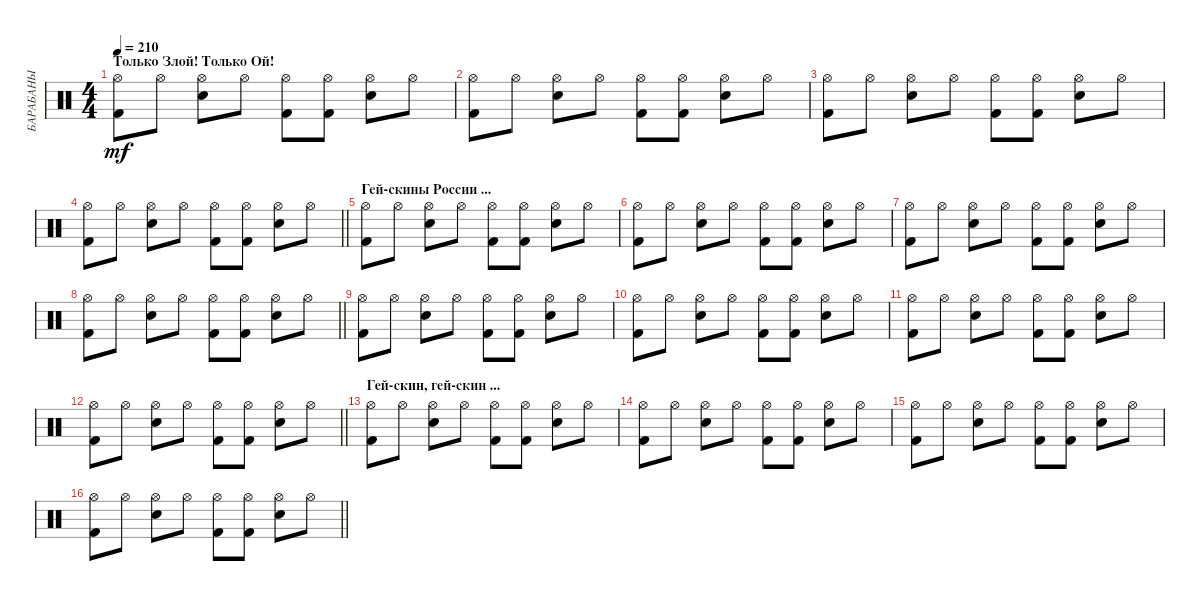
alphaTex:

\track ("БАРАБАНЫ" "БАРАБАНЫ") {instrument percussion}
\staff {score}
\articulation defaults
\ts (4 4)
\section ("" "Только Злой! Только Ой!")
\tempo 210
\clef neutral
\ks c
("Hi-Hat (open)" "Kick (hit) 2").8{dy mf} "Hi-Hat (open)".8 ("Hi-Hat (open)" "Snare (hit) 2").8 "Hi-Hat (open)".8 ("Hi-Hat (open)" "Kick (hit) 2").8 ("Hi-Hat (open)" "Kick (hit) 2").8 ("Hi-Hat (open)" "Snare (hit) 2").8 "Hi-Hat (open)".8 |
("Hi-Hat (open)" "Kick (hit) 2").8 "Hi-Hat (open)".8 ("Hi-Hat (open)" "Snare (hit) 2").8 "Hi-Hat (open)".8 ("Hi-Hat (open)" "Kick (hit) 2").8 ("Hi-Hat (open)" "Kick (hit) 2").8 ("Hi-Hat (open)" "Snare (hit) 2").8 "Hi-Hat (open)".8 |
("Hi-Hat (open)" "Kick (hit) 2").8 "Hi-Hat (open)".8 ("Hi-Hat (open)" "Snare (hit) 2").8 "Hi-Hat (open)".8 ("Hi-Hat (open)" "Kick (hit) 2").8 ("Hi-Hat (open)" "Kick (hit) 2").8 ("Hi-Hat (open)" "Snare (hit) 2").8 "Hi-Hat (open)".8 |
\barLineRight lightlight
("Hi-Hat (open)" "Kick (hit) 2").8 "Hi-Hat (open)".8 ("Hi-Hat (open)" "Snare (hit) 2").8 "Hi-Hat (open)".8 ("Hi-Hat (open)" "Kick (hit) 2").8 ("Hi-Hat (open)" "Kick (hit) 2").8 ("Hi-Hat (open)" "Snare (hit) 2").8 "Hi-Hat (open)".8 |
\section ("" "Гей-скины России ...")
("Hi-Hat (open)" "Kick (hit) 2").8 "Hi-Hat (open)".8 ("Hi-Hat (open)" "Snare (hit) 2").8 "Hi-Hat (open)".8 ("Hi-Hat (open)" "Kick (hit) 2").8 ("Hi-Hat (open)" "Kick (hit) 2").8 ("Hi-Hat (open)" "Snare (hit) 2").8 "Hi-Hat (open)".8 |
("Hi-Hat (open)" "Kick (hit) 2").8 "Hi-Hat (open)".8 ("Hi-Hat (open)" "Snare (hit) 2").8 "Hi-Hat (open)".8 ("Hi-Hat (open)" "Kick (hit) 2").8 ("Hi-Hat (open)" "Kick (hit) 2").8 ("Hi-Hat (open)" "Snare (hit) 2").8 "Hi-Hat (open)".8 |
("Hi-Hat (open)" "Kick (hit) 2").8 "Hi-Hat (open)".8 ("Hi-Hat (open)" "Snare (hit) 2").8 "Hi-Hat (open)".8 ("Hi-Hat (open)" "Kick (hit) 2").8 ("Hi-Hat (open)" "Kick (hit) 2").8 ("Hi-Hat (open)" "Snare (hit) 2").8 "Hi-Hat (open)".8 |
\barLineRight lightlight
("Hi-Hat (open)" "Kick (hit) 2").8 "Hi-Hat (open)".8 ("Hi-Hat (open)" "Snare (hit) 2").8 "Hi-Hat (open)".8 ("Hi-Hat (open)" "Kick (hit) 2").8 ("Hi-Hat (open)" "Kick (hit) 2").8 ("Hi-Hat (open)" "Snare (hit) 2").8 "Hi-Hat (open)".8 |
("Hi-Hat (open)" "Kick (hit) 2").8 "Hi-Hat (open)".8 ("Hi-Hat (open)" "Snare (hit) 2").8 "Hi-Hat (open)".8 ("Hi-Hat (open)" "Kick (hit) 2").8 ("Hi-Hat (open)" "Kick (hit) 2").8 ("Hi-Hat (open)" "Snare (hit) 2").8 "Hi-Hat (open)".8 |
("Hi-Hat (open)" "Kick (hit) 2").8 "Hi-Hat (open)".8 ("Hi-Hat (open)" "Snare (hit) 2").8 "Hi-Hat (open)".8 ("Hi-Hat (open)" "Kick (hit) 2").8 ("Hi-Hat (open)" "Kick (hit) 2").8 ("Hi-Hat (open)" "Snare (hit) 2").8 "Hi-Hat (open)".8 |
("Hi-Hat (open)" "Kick (hit) 2").8 "Hi-Hat (open)".8 ("Hi-Hat (open)" "Snare (hit) 2").8 "Hi-Hat (open)".8 ("Hi-Hat (open)" "Kick (hit) 2").8 ("Hi-Hat (open)" "Kick (hit) 2").8 ("Hi-Hat (open)" "Snare (hit) 2").8 "Hi-Hat (open)".8 |
\barLineRight lightlight
("Hi-Hat (open)" "Kick (hit) 2").8 "Hi-Hat (open)".8 ("Hi-Hat (open)" "Snare (hit) 2").8 "Hi-Hat (open)".8 ("Hi-Hat (open)" "Kick (hit) 2").8 ("Hi-Hat (open)" "Kick (hit) 2").8 ("Hi-Hat (open)" "Snare (hit) 2").8 "Hi-Hat (open)".8 |
\section ("" "Гей-скин, гей-скин ...")
("Hi-Hat (open)" "Kick (hit) 2").8 "Hi-Hat (open)".8 ("Hi-Hat (open)" "Snare (hit) 2").8 "Hi-Hat (open)".8 ("Hi-Hat (open)" "Kick (hit) 2").8 ("Hi-Hat (open)" "Kick (hit) 2").8 ("Hi-Hat (open)" "Snare (hit) 2").8 "Hi-Hat (open)".8 |
("Hi-Hat (open)" "Kick (hit) 2").8 "Hi-Hat (open)".8 ("Hi-Hat (open)" "Snare (hit) 2").8 "Hi-Hat (open)".8 ("Hi-Hat (open)" "Kick (hit) 2").8 ("Hi-Hat (open)" "Kick (hit) 2").8 ("Hi-Hat (open)" "Snare (hit) 2").8 "Hi-Hat (open)".8 |
("Hi-Hat (open)" "Kick (hit) 2").8 "Hi-Hat (open)".8 ("Hi-Hat (open)" "Snare (hit) 2").8 "Hi-Hat (open)".8 ("Hi-Hat (open)" "Kick (hit) 2").8 ("Hi-Hat (open)" "Kick (hit) 2").8 ("Hi-Hat (open)" "Snare (hit) 2").8 "Hi-Hat (open)".8 |
\barLineRight lightlight
("Hi-Hat (open)" "Kick (hit) 2").8 "Hi-Hat (open)".8 ("Hi-Hat (open)" "Snare (hit) 2").8 "Hi-Hat (open)".8 ("Hi-Hat (open)" "Kick (hit) 2").8 ("Hi-Hat (open)" "Kick (hit) 2").8 ("Hi-Hat (open)" "Snare (hit) 2").8 "Hi-Hat (open)".8
